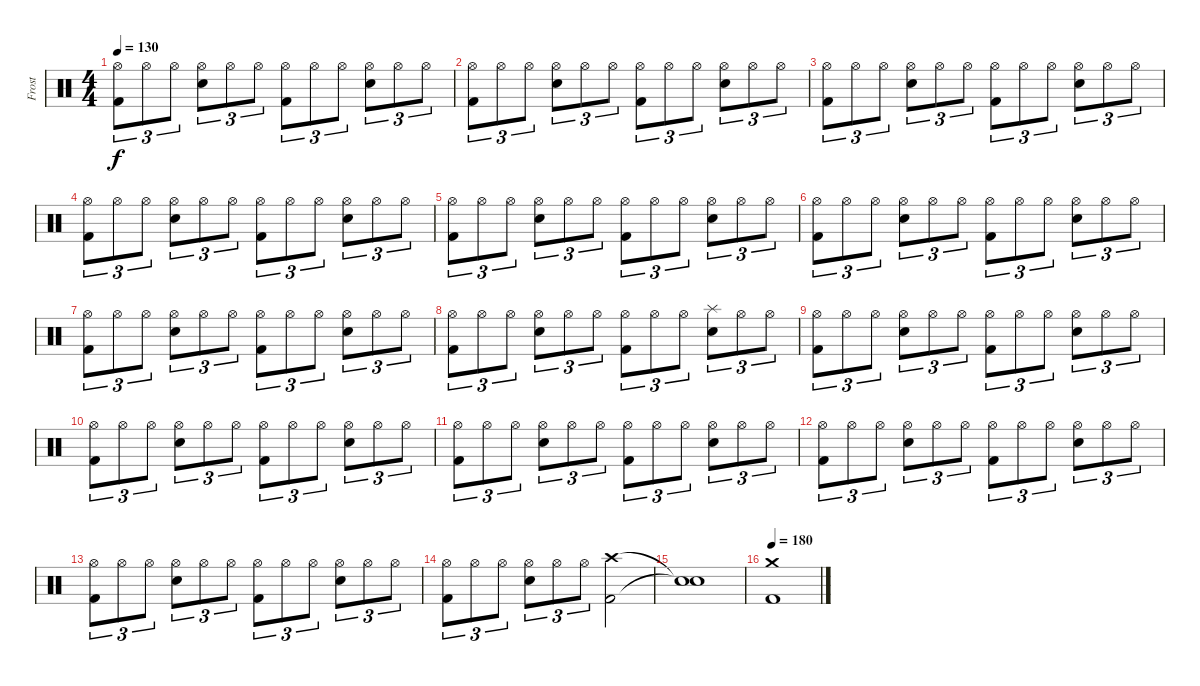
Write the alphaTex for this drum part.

\track ("Frost" "Frost") {instrument percussion}
\staff {score}
\articulation defaults
\ts (4 4)
\tempo 130
\clef neutral
\ks c
("Hi-Hat (open)" "Kick (hit) 2").8{tu (3 2) dy f} "Hi-Hat (open)".8{tu (3 2)} "Hi-Hat (open)".8{tu (3 2)} ("Hi-Hat (open)" "Electric Snare (hit)").8{tu (3 2)} "Hi-Hat (open)".8{tu (3 2)} "Hi-Hat (open)".8{tu (3 2)} ("Hi-Hat (open)" "Kick (hit) 2").8{tu (3 2)} "Hi-Hat (open)".8{tu (3 2)} "Hi-Hat (open)".8{tu (3 2)} ("Hi-Hat (open)" "Electric Snare (hit)").8{tu (3 2)} "Hi-Hat (open)".8{tu (3 2)} "Hi-Hat (open)".8{tu (3 2)} |
("Hi-Hat (open)" "Kick (hit) 2").8{tu (3 2)} "Hi-Hat (open)".8{tu (3 2)} "Hi-Hat (open)".8{tu (3 2)} ("Hi-Hat (open)" "Electric Snare (hit)").8{tu (3 2)} "Hi-Hat (open)".8{tu (3 2)} "Hi-Hat (open)".8{tu (3 2)} ("Hi-Hat (open)" "Kick (hit) 2").8{tu (3 2)} "Hi-Hat (open)".8{tu (3 2)} "Hi-Hat (open)".8{tu (3 2)} ("Hi-Hat (open)" "Electric Snare (hit)").8{tu (3 2)} "Hi-Hat (open)".8{tu (3 2)} "Hi-Hat (open)".8{tu (3 2)} |
("Hi-Hat (open)" "Kick (hit) 2").8{tu (3 2)} "Hi-Hat (open)".8{tu (3 2)} "Hi-Hat (open)".8{tu (3 2)} ("Hi-Hat (open)" "Electric Snare (hit)").8{tu (3 2)} "Hi-Hat (open)".8{tu (3 2)} "Hi-Hat (open)".8{tu (3 2)} ("Hi-Hat (open)" "Kick (hit) 2").8{tu (3 2)} "Hi-Hat (open)".8{tu (3 2)} "Hi-Hat (open)".8{tu (3 2)} ("Hi-Hat (open)" "Electric Snare (hit)").8{tu (3 2)} "Hi-Hat (open)".8{tu (3 2)} "Hi-Hat (open)".8{tu (3 2)} |
("Hi-Hat (open)" "Kick (hit) 2").8{tu (3 2)} "Hi-Hat (open)".8{tu (3 2)} "Hi-Hat (open)".8{tu (3 2)} ("Hi-Hat (open)" "Electric Snare (hit)").8{tu (3 2)} "Hi-Hat (open)".8{tu (3 2)} "Hi-Hat (open)".8{tu (3 2)} ("Hi-Hat (open)" "Kick (hit) 2").8{tu (3 2)} "Hi-Hat (open)".8{tu (3 2)} "Hi-Hat (open)".8{tu (3 2)} ("Hi-Hat (open)" "Electric Snare (hit)").8{tu (3 2)} "Hi-Hat (open)".8{tu (3 2)} "Hi-Hat (open)".8{tu (3 2)} |
("Hi-Hat (open)" "Kick (hit) 2").8{tu (3 2)} "Hi-Hat (open)".8{tu (3 2)} "Hi-Hat (open)".8{tu (3 2)} ("Hi-Hat (open)" "Electric Snare (hit)").8{tu (3 2)} "Hi-Hat (open)".8{tu (3 2)} "Hi-Hat (open)".8{tu (3 2)} ("Hi-Hat (open)" "Kick (hit) 2").8{tu (3 2)} "Hi-Hat (open)".8{tu (3 2)} "Hi-Hat (open)".8{tu (3 2)} ("Hi-Hat (open)" "Electric Snare (hit)").8{tu (3 2)} "Hi-Hat (open)".8{tu (3 2)} "Hi-Hat (open)".8{tu (3 2)} |
("Hi-Hat (open)" "Kick (hit) 2").8{tu (3 2)} "Hi-Hat (open)".8{tu (3 2)} "Hi-Hat (open)".8{tu (3 2)} ("Hi-Hat (open)" "Electric Snare (hit)").8{tu (3 2)} "Hi-Hat (open)".8{tu (3 2)} "Hi-Hat (open)".8{tu (3 2)} ("Hi-Hat (open)" "Kick (hit) 2").8{tu (3 2)} "Hi-Hat (open)".8{tu (3 2)} "Hi-Hat (open)".8{tu (3 2)} ("Hi-Hat (open)" "Electric Snare (hit)").8{tu (3 2)} "Hi-Hat (open)".8{tu (3 2)} "Hi-Hat (open)".8{tu (3 2)} |
("Hi-Hat (open)" "Kick (hit) 2").8{tu (3 2)} "Hi-Hat (open)".8{tu (3 2)} "Hi-Hat (open)".8{tu (3 2)} ("Hi-Hat (open)" "Electric Snare (hit)").8{tu (3 2)} "Hi-Hat (open)".8{tu (3 2)} "Hi-Hat (open)".8{tu (3 2)} ("Hi-Hat (open)" "Kick (hit) 2").8{tu (3 2)} "Hi-Hat (open)".8{tu (3 2)} "Hi-Hat (open)".8{tu (3 2)} ("Hi-Hat (open)" "Electric Snare (hit)").8{tu (3 2)} "Hi-Hat (open)".8{tu (3 2)} "Hi-Hat (open)".8{tu (3 2)} |
("Hi-Hat (open)" "Kick (hit) 2").8{tu (3 2)} "Hi-Hat (open)".8{tu (3 2)} "Hi-Hat (open)".8{tu (3 2)} ("Hi-Hat (open)" "Electric Snare (hit)").8{tu (3 2)} "Hi-Hat (open)".8{tu (3 2)} "Hi-Hat (open)".8{tu (3 2)} ("Hi-Hat (open)" "Kick (hit) 2").8{tu (3 2)} "Hi-Hat (open)".8{tu (3 2)} "Hi-Hat (open)".8{tu (3 2)} ("Splash (hit)" "Electric Snare (hit)").8{tu (3 2)} "Hi-Hat (open)".8{tu (3 2)} "Hi-Hat (open)".8{tu (3 2)} |
("Hi-Hat (open)" "Kick (hit) 2").8{tu (3 2)} "Hi-Hat (open)".8{tu (3 2)} "Hi-Hat (open)".8{tu (3 2)} ("Hi-Hat (open)" "Electric Snare (hit)").8{tu (3 2)} "Hi-Hat (open)".8{tu (3 2)} "Hi-Hat (open)".8{tu (3 2)} ("Hi-Hat (open)" "Kick (hit) 2").8{tu (3 2)} "Hi-Hat (open)".8{tu (3 2)} "Hi-Hat (open)".8{tu (3 2)} ("Hi-Hat (open)" "Electric Snare (hit)").8{tu (3 2)} "Hi-Hat (open)".8{tu (3 2)} "Hi-Hat (open)".8{tu (3 2)} |
("Hi-Hat (open)" "Kick (hit) 2").8{tu (3 2)} "Hi-Hat (open)".8{tu (3 2)} "Hi-Hat (open)".8{tu (3 2)} ("Hi-Hat (open)" "Electric Snare (hit)").8{tu (3 2)} "Hi-Hat (open)".8{tu (3 2)} "Hi-Hat (open)".8{tu (3 2)} ("Hi-Hat (open)" "Kick (hit) 2").8{tu (3 2)} "Hi-Hat (open)".8{tu (3 2)} "Hi-Hat (open)".8{tu (3 2)} ("Hi-Hat (open)" "Electric Snare (hit)").8{tu (3 2)} "Hi-Hat (open)".8{tu (3 2)} "Hi-Hat (open)".8{tu (3 2)} |
("Hi-Hat (open)" "Kick (hit) 2").8{tu (3 2)} "Hi-Hat (open)".8{tu (3 2)} "Hi-Hat (open)".8{tu (3 2)} ("Hi-Hat (open)" "Electric Snare (hit)").8{tu (3 2)} "Hi-Hat (open)".8{tu (3 2)} "Hi-Hat (open)".8{tu (3 2)} ("Hi-Hat (open)" "Kick (hit) 2").8{tu (3 2)} "Hi-Hat (open)".8{tu (3 2)} "Hi-Hat (open)".8{tu (3 2)} ("Hi-Hat (open)" "Electric Snare (hit)").8{tu (3 2)} "Hi-Hat (open)".8{tu (3 2)} "Hi-Hat (open)".8{tu (3 2)} |
("Hi-Hat (open)" "Kick (hit) 2").8{tu (3 2)} "Hi-Hat (open)".8{tu (3 2)} "Hi-Hat (open)".8{tu (3 2)} ("Hi-Hat (open)" "Electric Snare (hit)").8{tu (3 2)} "Hi-Hat (open)".8{tu (3 2)} "Hi-Hat (open)".8{tu (3 2)} ("Hi-Hat (open)" "Kick (hit) 2").8{tu (3 2)} "Hi-Hat (open)".8{tu (3 2)} "Hi-Hat (open)".8{tu (3 2)} ("Hi-Hat (open)" "Electric Snare (hit)").8{tu (3 2)} "Hi-Hat (open)".8{tu (3 2)} "Hi-Hat (open)".8{tu (3 2)} |
("Hi-Hat (open)" "Kick (hit) 2").8{tu (3 2)} "Hi-Hat (open)".8{tu (3 2)} "Hi-Hat (open)".8{tu (3 2)} ("Hi-Hat (open)" "Electric Snare (hit)").8{tu (3 2)} "Hi-Hat (open)".8{tu (3 2)} "Hi-Hat (open)".8{tu (3 2)} ("Hi-Hat (open)" "Kick (hit) 2").8{tu (3 2)} "Hi-Hat (open)".8{tu (3 2)} "Hi-Hat (open)".8{tu (3 2)} ("Hi-Hat (open)" "Electric Snare (hit)").8{tu (3 2)} "Hi-Hat (open)".8{tu (3 2)} "Hi-Hat (open)".8{tu (3 2)} |
("Hi-Hat (open)" "Kick (hit) 2").8{tu (3 2)} "Hi-Hat (open)".8{tu (3 2)} "Hi-Hat (open)".8{tu (3 2)} ("Hi-Hat (open)" "Electric Snare (hit)").8{tu (3 2)} "Hi-Hat (open)".8{tu (3 2)} "Hi-Hat (open)".8{tu (3 2)} ("Crash high (hit)" "Kick (hit) 2").2 |
("Snare (hit)"{t} "Snare (hit)"{t}).1 |
\tempo 180
("Crash medium (hit)" "Kick (hit) 2").1
